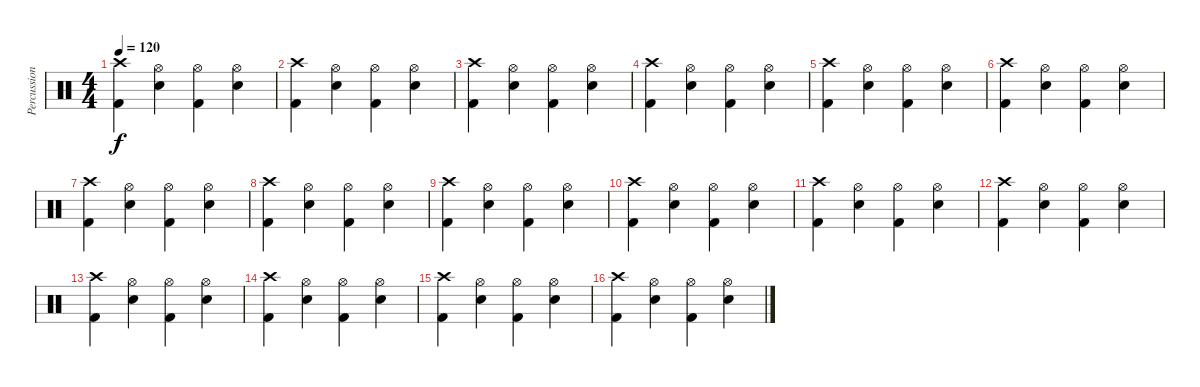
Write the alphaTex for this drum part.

\track ("Percussions" "Percussion") {instrument percussion}
\staff {score}
\articulation defaults
\ts (4 4)
\tempo 120
\clef neutral
\ks c
("Crash high (hit)" "Kick (hit) 2").4{dy f} ("Hi-Hat (open)" "Electric Snare (hit)").4 ("Hi-Hat (open)" "Kick (hit) 2").4 ("Hi-Hat (open)" "Electric Snare (hit)").4 |
("Crash high (hit)" "Kick (hit) 2").4 ("Hi-Hat (open)" "Electric Snare (hit)").4 ("Hi-Hat (open)" "Kick (hit) 2").4 ("Hi-Hat (open)" "Electric Snare (hit)").4 |
("Crash high (hit)" "Kick (hit) 2").4 ("Hi-Hat (open)" "Electric Snare (hit)").4 ("Hi-Hat (open)" "Kick (hit) 2").4 ("Hi-Hat (open)" "Electric Snare (hit)").4 |
("Crash high (hit)" "Kick (hit) 2").4 ("Hi-Hat (open)" "Electric Snare (hit)").4 ("Hi-Hat (open)" "Kick (hit) 2").4 ("Hi-Hat (open)" "Electric Snare (hit)").4 |
("Crash high (hit)" "Kick (hit) 2").4 ("Hi-Hat (open)" "Electric Snare (hit)").4 ("Hi-Hat (open)" "Kick (hit) 2").4 ("Hi-Hat (open)" "Electric Snare (hit)").4 |
("Crash high (hit)" "Kick (hit) 2").4 ("Hi-Hat (open)" "Electric Snare (hit)").4 ("Hi-Hat (open)" "Kick (hit) 2").4 ("Hi-Hat (open)" "Electric Snare (hit)").4 |
("Crash high (hit)" "Kick (hit) 2").4 ("Hi-Hat (open)" "Electric Snare (hit)").4 ("Hi-Hat (open)" "Kick (hit) 2").4 ("Hi-Hat (open)" "Electric Snare (hit)").4 |
("Crash high (hit)" "Kick (hit) 2").4 ("Hi-Hat (open)" "Electric Snare (hit)").4 ("Hi-Hat (open)" "Kick (hit) 2").4 ("Hi-Hat (open)" "Electric Snare (hit)").4 |
("Crash high (hit)" "Kick (hit) 2").4 ("Hi-Hat (open)" "Electric Snare (hit)").4 ("Hi-Hat (open)" "Kick (hit) 2").4 ("Hi-Hat (open)" "Electric Snare (hit)").4 |
("Crash high (hit)" "Kick (hit) 2").4 ("Hi-Hat (open)" "Electric Snare (hit)").4 ("Hi-Hat (open)" "Kick (hit) 2").4 ("Hi-Hat (open)" "Electric Snare (hit)").4 |
("Crash high (hit)" "Kick (hit) 2").4 ("Hi-Hat (open)" "Electric Snare (hit)").4 ("Hi-Hat (open)" "Kick (hit) 2").4 ("Hi-Hat (open)" "Electric Snare (hit)").4 |
("Crash high (hit)" "Kick (hit) 2").4 ("Hi-Hat (open)" "Electric Snare (hit)").4 ("Hi-Hat (open)" "Kick (hit) 2").4 ("Hi-Hat (open)" "Electric Snare (hit)").4 |
("Crash high (hit)" "Kick (hit) 2").4 ("Hi-Hat (open)" "Electric Snare (hit)").4 ("Hi-Hat (open)" "Kick (hit) 2").4 ("Hi-Hat (open)" "Electric Snare (hit)").4 |
("Crash high (hit)" "Kick (hit) 2").4 ("Hi-Hat (open)" "Electric Snare (hit)").4 ("Hi-Hat (open)" "Kick (hit) 2").4 ("Hi-Hat (open)" "Electric Snare (hit)").4 |
("Crash high (hit)" "Kick (hit) 2").4 ("Hi-Hat (open)" "Electric Snare (hit)").4 ("Hi-Hat (open)" "Kick (hit) 2").4 ("Hi-Hat (open)" "Electric Snare (hit)").4 |
("Crash high (hit)" "Kick (hit) 2").4 ("Hi-Hat (open)" "Electric Snare (hit)").4 ("Hi-Hat (open)" "Kick (hit) 2").4 ("Hi-Hat (open)" "Electric Snare (hit)").4
